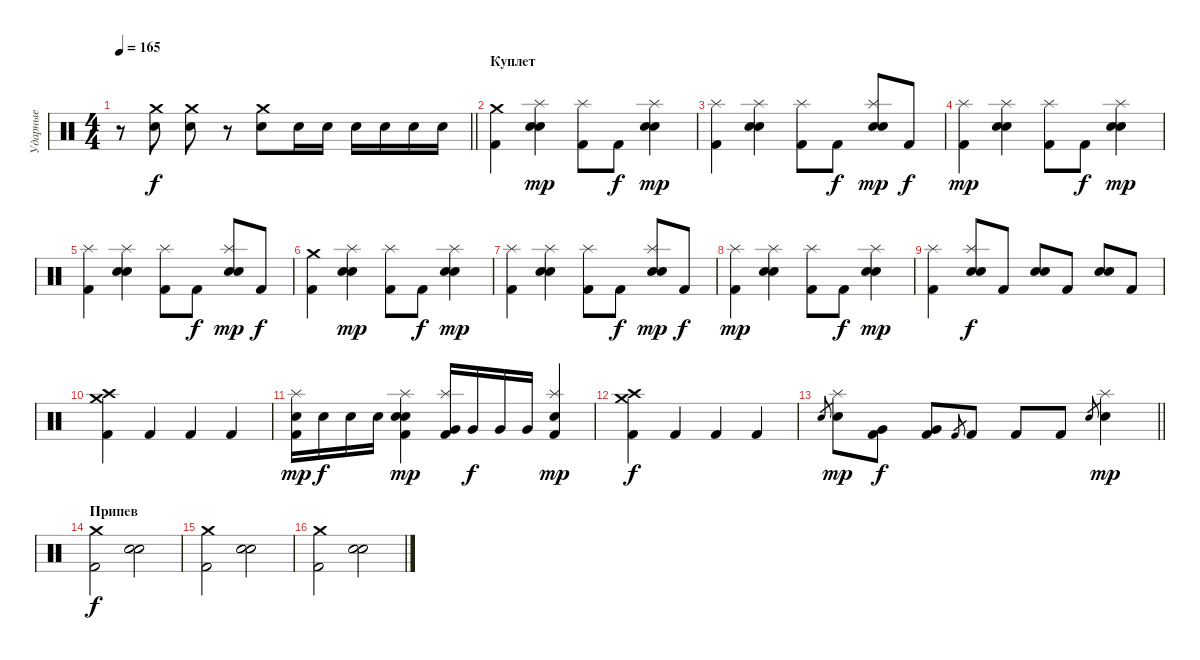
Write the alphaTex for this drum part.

\track ("Ударные" "Ударные") {instrument percussion}
\staff {score}
\articulation defaults
\ts (4 4)
\tempo 165
\clef neutral
\barLineRight lightlight
\ks c
r.8{dy f} ("Crash medium (hit)" "Electric Snare (hit)").8 ("Crash medium (hit)" "Electric Snare (hit)").8 r.8 ("Crash medium (hit)" "Electric Snare (hit)").8 "Electric Snare (hit)".16 "Electric Snare (hit)".16 "Electric Snare (hit)".16 "Electric Snare (hit)".16 "Electric Snare (hit)".16 "Electric Snare (hit)".16 |
\section ("" "Куплет")
("Crash medium (hit)" "Kick (hit) 2").4 ("Splash (hit)" "Electric Snare (hit)" "Snare (hit) 2").4{dy mp} ("Splash (hit)" "Kick (hit) 2").8 "Kick (hit) 2".8{dy f} ("Splash (hit)" "Electric Snare (hit)" "Snare (hit) 2").4{dy mp} |
("Splash (hit)" "Kick (hit) 2").4 ("Splash (hit)" "Electric Snare (hit)" "Snare (hit) 2").4 ("Splash (hit)" "Kick (hit) 2").8 "Kick (hit) 2".8{dy f} ("Splash (hit)" "Electric Snare (hit)" "Snare (hit) 2").8{dy mp} "Kick (hit) 2".8{dy f} |
("Splash (hit)" "Kick (hit) 2").4{dy mp} ("Splash (hit)" "Electric Snare (hit)" "Snare (hit) 2").4 ("Splash (hit)" "Kick (hit) 2").8 "Kick (hit) 2".8{dy f} ("Splash (hit)" "Electric Snare (hit)" "Snare (hit) 2").4{dy mp} |
("Splash (hit)" "Kick (hit) 2").4 ("Splash (hit)" "Electric Snare (hit)" "Snare (hit) 2").4 ("Splash (hit)" "Kick (hit) 2").8 "Kick (hit) 2".8{dy f} ("Splash (hit)" "Electric Snare (hit)" "Snare (hit) 2").8{dy mp} "Kick (hit) 2".8{dy f} |
("Crash medium (hit)" "Kick (hit) 2").4 ("Splash (hit)" "Electric Snare (hit)" "Snare (hit) 2").4{dy mp} ("Splash (hit)" "Kick (hit) 2").8 "Kick (hit) 2".8{dy f} ("Splash (hit)" "Electric Snare (hit)" "Snare (hit) 2").4{dy mp} |
("Splash (hit)" "Kick (hit) 2").4 ("Splash (hit)" "Electric Snare (hit)" "Snare (hit) 2").4 ("Splash (hit)" "Kick (hit) 2").8 "Kick (hit) 2".8{dy f} ("Splash (hit)" "Electric Snare (hit)" "Snare (hit) 2").8{dy mp} "Kick (hit) 2".8{dy f} |
("Splash (hit)" "Kick (hit) 2").4{dy mp} ("Splash (hit)" "Electric Snare (hit)" "Snare (hit) 2").4 ("Splash (hit)" "Kick (hit) 2").8 "Kick (hit) 2".8{dy f} ("Splash (hit)" "Electric Snare (hit)" "Snare (hit) 2").4{dy mp} |
("Splash (hit)" "Kick (hit) 2").4 ("Splash (hit)" "Electric Snare (hit)" "Snare (hit) 2").8{dy f} "Kick (hit) 2".8 ("Electric Snare (hit)" "Snare (hit) 2").8 "Kick (hit) 2".8 ("Electric Snare (hit)" "Snare (hit) 2").8 "Kick (hit) 2".8 |
("Crash medium (hit)" "Crash high (hit)" "Kick (hit) 2").4 "Kick (hit) 2".4 "Kick (hit) 2".4 "Kick (hit) 2".4 |
("Splash (hit)" "Electric Snare (hit)" "Kick (hit) 2").16{dy mp} "Electric Snare (hit)".16{dy f} "Electric Snare (hit)".16 "Electric Snare (hit)".16 ("Splash (hit)" "Electric Snare (hit)" "Snare (hit) 2" "Kick (hit) 2").4{dy mp} ("Splash (hit)" "Very Low Tom (hit)" "Kick (hit) 2").16 "Very Low Tom (hit)".16{dy f} "Very Low Tom (hit)".16 "Very Low Tom (hit)".16 ("Splash (hit)" "Snare (hit) 2" "Kick (hit) 2").4{dy mp} |
("Crash medium (hit)" "Crash high (hit)" "Kick (hit) 2").4{dy f} "Kick (hit) 2".4 "Kick (hit) 2".4 "Kick (hit) 2".4 |
\barLineRight lightlight "Electric Snare (hit)".8{gr}
("Splash (hit)" "Electric Snare (hit)").8{dy mp} ("Very Low Tom (hit)" "Kick (hit) 2").8{dy f} ("Very Low Tom (hit)" "Kick (hit) 2").8 "Kick (hit) 2".8{gr} "Kick (hit) 2".8 "Kick (hit) 2".8 "Kick (hit) 2".8 "Electric Snare (hit)".8{gr} ("Splash (hit)" "Electric Snare (hit)").4{dy mp} |
\section ("" "Припев")
("Crash medium (hit)" "Kick (hit) 2").2{dy f} ("Electric Snare (hit)" "Snare (hit) 2").2 |
("Crash medium (hit)" "Kick (hit) 2").2 ("Electric Snare (hit)" "Snare (hit) 2").2 |
("Crash medium (hit)" "Kick (hit) 2").2 ("Electric Snare (hit)" "Snare (hit) 2").2
